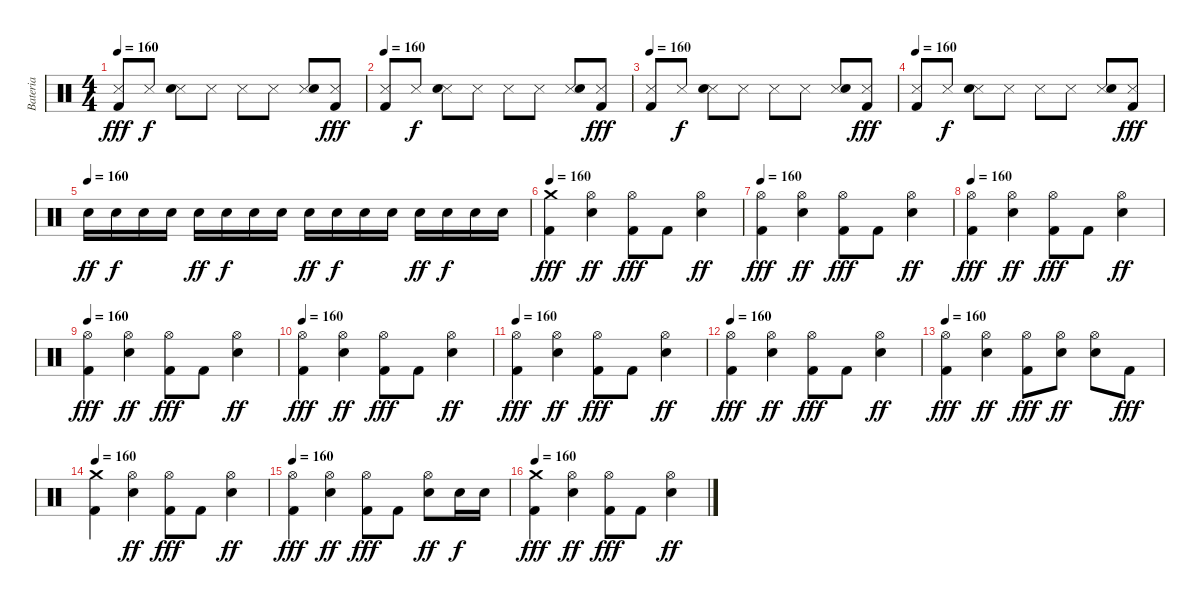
\track ("Bateria" "Bateria") {instrument percussion}
\staff {score}
\articulation defaults
\ts (4 4)
\tempo 160
\clef neutral
\ks c
("Metronome (hit)" "Kick (hit) 2").8{dy fff} "Metronome (hit)".8{dy f} ("Metronome (hit)" "Snare (hit) 2").8 "Metronome (hit)".8 "Metronome (hit)".8 "Metronome (hit)".8 ("Metronome (hit)" "Snare (hit) 2").8 ("Metronome (hit)" "Kick (hit) 2").8{dy fff} |
\tempo 160
("Metronome (hit)" "Kick (hit) 2").8 "Metronome (hit)".8{dy f} ("Metronome (hit)" "Snare (hit) 2").8 "Metronome (hit)".8 "Metronome (hit)".8 "Metronome (hit)".8 ("Metronome (hit)" "Snare (hit) 2").8 ("Metronome (hit)" "Kick (hit) 2").8{dy fff} |
\tempo 160
("Metronome (hit)" "Kick (hit) 2").8 "Metronome (hit)".8{dy f} ("Metronome (hit)" "Snare (hit) 2").8 "Metronome (hit)".8 "Metronome (hit)".8 "Metronome (hit)".8 ("Metronome (hit)" "Snare (hit) 2").8 ("Metronome (hit)" "Kick (hit) 2").8{dy fff} |
\tempo 160
("Metronome (hit)" "Kick (hit) 2").8 "Metronome (hit)".8{dy f} ("Metronome (hit)" "Snare (hit) 2").8 "Metronome (hit)".8 "Metronome (hit)".8 "Metronome (hit)".8 ("Metronome (hit)" "Snare (hit) 2").8 ("Metronome (hit)" "Kick (hit) 2").8{dy fff} |
\tempo (160)
"Electric Snare (hit)".16{dy ff} "Electric Snare (hit)".16{dy f} "Electric Snare (hit)".16 "Electric Snare (hit)".16 "Electric Snare (hit)".16{dy ff} "Electric Snare (hit)".16{dy f} "Electric Snare (hit)".16 "Electric Snare (hit)".16 "Electric Snare (hit)".16{dy ff} "Electric Snare (hit)".16{dy f} "Electric Snare (hit)".16 "Electric Snare (hit)".16 "Electric Snare (hit)".16{dy ff} "Electric Snare (hit)".16{dy f} "Electric Snare (hit)".16 "Electric Snare (hit)".16 |
\tempo 160
("Crash medium (hit)" "Kick (hit) 2").4{dy fff} ("Hi-Hat (open)" "Electric Snare (hit)").4{dy ff} ("Hi-Hat (open)" "Kick (hit) 2").8{dy fff} "Kick (hit) 2".8 ("Hi-Hat (open)" "Electric Snare (hit)").4{dy ff} |
\tempo 160
("Hi-Hat (open)" "Kick (hit) 2").4{dy fff} ("Hi-Hat (open)" "Electric Snare (hit)").4{dy ff} ("Hi-Hat (open)" "Kick (hit) 2").8{dy fff} "Kick (hit) 2".8 ("Hi-Hat (open)" "Electric Snare (hit)").4{dy ff} |
\tempo 160
("Hi-Hat (open)" "Kick (hit) 2").4{dy fff} ("Hi-Hat (open)" "Electric Snare (hit)").4{dy ff} ("Hi-Hat (open)" "Kick (hit) 2").8{dy fff} "Kick (hit) 2".8 ("Hi-Hat (open)" "Electric Snare (hit)").4{dy ff} |
\tempo 160
("Hi-Hat (open)" "Kick (hit) 2").4{dy fff} ("Hi-Hat (open)" "Electric Snare (hit)").4{dy ff} ("Hi-Hat (open)" "Kick (hit) 2").8{dy fff} "Kick (hit) 2".8 ("Hi-Hat (open)" "Electric Snare (hit)").4{dy ff} |
\tempo 160
("Hi-Hat (open)" "Kick (hit) 2").4{dy fff} ("Hi-Hat (open)" "Electric Snare (hit)").4{dy ff} ("Hi-Hat (open)" "Kick (hit) 2").8{dy fff} "Kick (hit) 2".8 ("Hi-Hat (open)" "Electric Snare (hit)").4{dy ff} |
\tempo 160
("Hi-Hat (open)" "Kick (hit) 2").4{dy fff} ("Hi-Hat (open)" "Electric Snare (hit)").4{dy ff} ("Hi-Hat (open)" "Kick (hit) 2").8{dy fff} "Kick (hit) 2".8 ("Hi-Hat (open)" "Electric Snare (hit)").4{dy ff} |
\tempo 160
("Hi-Hat (open)" "Kick (hit) 2").4{dy fff} ("Hi-Hat (open)" "Electric Snare (hit)").4{dy ff} ("Hi-Hat (open)" "Kick (hit) 2").8{dy fff} "Kick (hit) 2".8 ("Hi-Hat (open)" "Electric Snare (hit)").4{dy ff} |
\tempo 160
("Hi-Hat (open)" "Kick (hit) 2").4{dy fff} ("Hi-Hat (open)" "Electric Snare (hit)").4{dy ff} ("Hi-Hat (open)" "Kick (hit) 2").8{dy fff} ("Hi-Hat (open)" "Electric Snare (hit)").8{dy ff} ("Hi-Hat (open)" "Electric Snare (hit)").8 "Kick (hit) 2".8{dy fff} |
\tempo 160
("Crash medium (hit)" "Kick (hit) 2").4 ("Hi-Hat (open)" "Electric Snare (hit)").4{dy ff} ("Hi-Hat (open)" "Kick (hit) 2").8{dy fff} "Kick (hit) 2".8 ("Hi-Hat (open)" "Electric Snare (hit)").4{dy ff} |
\tempo 160
("Hi-Hat (open)" "Kick (hit) 2").4{dy fff} ("Hi-Hat (open)" "Electric Snare (hit)").4{dy ff} ("Hi-Hat (open)" "Kick (hit) 2").8{dy fff} "Kick (hit) 2".8 ("Hi-Hat (open)" "Electric Snare (hit)").8{dy ff} "Electric Snare (hit)".16{dy f} "Electric Snare (hit)".16 |
\tempo 160
("Crash medium (hit)" "Kick (hit) 2").4{dy fff} ("Hi-Hat (open)" "Electric Snare (hit)").4{dy ff} ("Hi-Hat (open)" "Kick (hit) 2").8{dy fff} "Kick (hit) 2".8 ("Hi-Hat (open)" "Electric Snare (hit)").4{dy ff}
